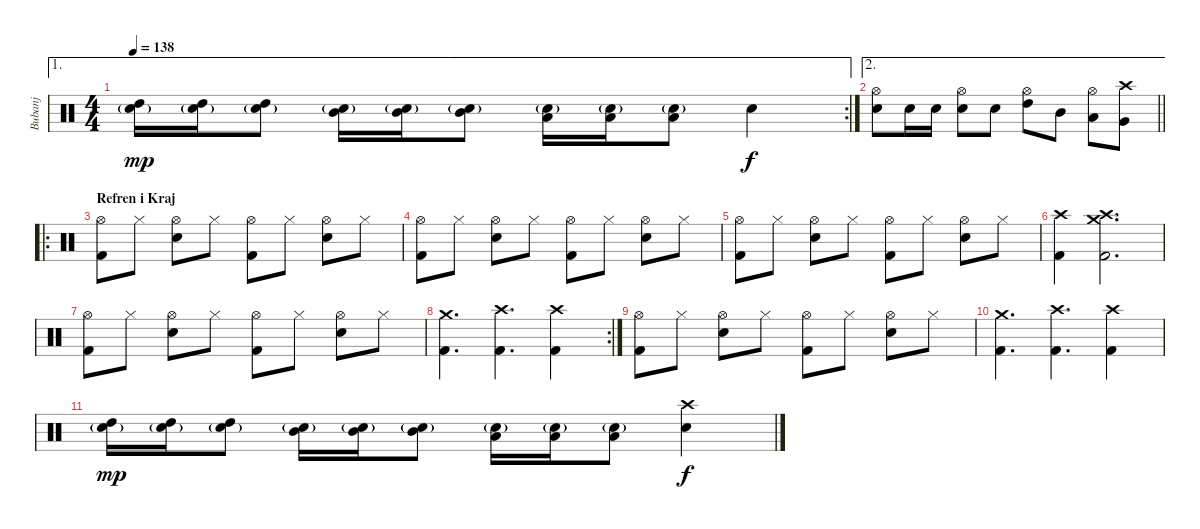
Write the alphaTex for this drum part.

\track ("Bubanj" "Bubanj") {instrument percussion}
\staff {score}
\articulation defaults
\ae 1
\rc 2
\ts (4 4)
\tempo 138
\clef neutral
\ks c
("High Tom (hit)" "Snare (hit) 2"{g}).16{dy mp} ("High Tom (hit)" "Snare (hit) 2"{g}).16 ("High Tom (hit)" "Snare (hit) 2"{g}).8 ("Mid Tom (hit)" "Snare (hit) 2"{g}).16 ("Mid Tom (hit)" "Snare (hit) 2"{g}).16 ("Mid Tom (hit)" "Snare (hit) 2"{g}).8 ("Low Tom (hit)" "Snare (hit) 2"{g}).16 ("Low Tom (hit)" "Snare (hit) 2"{g}).16 ("Low Tom (hit)" "Snare (hit) 2"{g}).8 "Snare (hit) 2".4{dy f} |
\ae 2
\barLineRight lightlight
("Hi-Hat (open)" "Snare (hit) 2").8 "Snare (hit) 2".16 "Snare (hit) 2".16 ("Hi-Hat (open)" "Snare (hit) 2").8 "Snare (hit) 2".8 ("Hi-Hat (open)" "High Tom (hit)").8 "Mid Tom (hit)".8 ("Hi-Hat (open)" "Low Tom (hit)").8 ("Crash high (hit)" "Very Low Tom (hit)").8 |
\ro
\section ("" "Refren i Kraj")
("Hi-Hat (open)" "Kick (hit) 2").8 "Hi-Hat (closed)".8 ("Hi-Hat (open)" "Snare (hit) 2").8 "Hi-Hat (closed)".8 ("Hi-Hat (open)" "Kick (hit) 2").8 "Hi-Hat (closed)".8 ("Hi-Hat (open)" "Snare (hit) 2").8 "Hi-Hat (closed)".8 |
("Hi-Hat (open)" "Kick (hit) 2").8 "Hi-Hat (closed)".8 ("Hi-Hat (open)" "Snare (hit) 2").8 "Hi-Hat (closed)".8 ("Hi-Hat (open)" "Kick (hit) 2").8 "Hi-Hat (closed)".8 ("Hi-Hat (open)" "Snare (hit) 2").8 "Hi-Hat (closed)".8 |
("Hi-Hat (open)" "Kick (hit) 2").8 "Hi-Hat (closed)".8 ("Hi-Hat (open)" "Snare (hit) 2").8 "Hi-Hat (closed)".8 ("Hi-Hat (open)" "Kick (hit) 2").8 "Hi-Hat (closed)".8 ("Hi-Hat (open)" "Snare (hit) 2").8 "Hi-Hat (closed)".8 |
("Crash high (hit)" "Kick (hit) 2").4 ("Crash high (hit)" "Crash medium (hit)" "Kick (hit) 2").2{d} |
("Hi-Hat (open)" "Kick (hit) 2").8 "Hi-Hat (closed)".8 ("Hi-Hat (open)" "Snare (hit) 2").8 "Hi-Hat (closed)".8 ("Hi-Hat (open)" "Kick (hit) 2").8 "Hi-Hat (closed)".8 ("Hi-Hat (open)" "Snare (hit) 2").8 "Hi-Hat (closed)".8 |
\rc 2
("Crash medium (hit)" "Kick (hit) 2").4{d} ("Crash high (hit)" "Kick (hit) 2").4{d} ("Crash high (hit)" "Kick (hit) 2").4 |
("Hi-Hat (open)" "Kick (hit) 2").8 "Hi-Hat (closed)".8 ("Hi-Hat (open)" "Snare (hit) 2").8 "Hi-Hat (closed)".8 ("Hi-Hat (open)" "Kick (hit) 2").8 "Hi-Hat (closed)".8 ("Hi-Hat (open)" "Snare (hit) 2").8 "Hi-Hat (closed)".8 |
("Crash medium (hit)" "Kick (hit) 2").4{d} ("Crash high (hit)" "Kick (hit) 2").4{d} ("Crash high (hit)" "Kick (hit) 2").4 |
("High Tom (hit)" "Snare (hit) 2"{g}).16{dy mp} ("High Tom (hit)" "Snare (hit) 2"{g}).16 ("High Tom (hit)" "Snare (hit) 2"{g}).8 ("Mid Tom (hit)" "Snare (hit) 2"{g}).16 ("Mid Tom (hit)" "Snare (hit) 2"{g}).16 ("Mid Tom (hit)" "Snare (hit) 2"{g}).8 ("Low Tom (hit)" "Snare (hit) 2"{g}).16 ("Low Tom (hit)" "Snare (hit) 2"{g}).16 ("Low Tom (hit)" "Snare (hit) 2"{g}).8 ("Crash high (hit)" "Snare (hit) 2").4{dy f}
